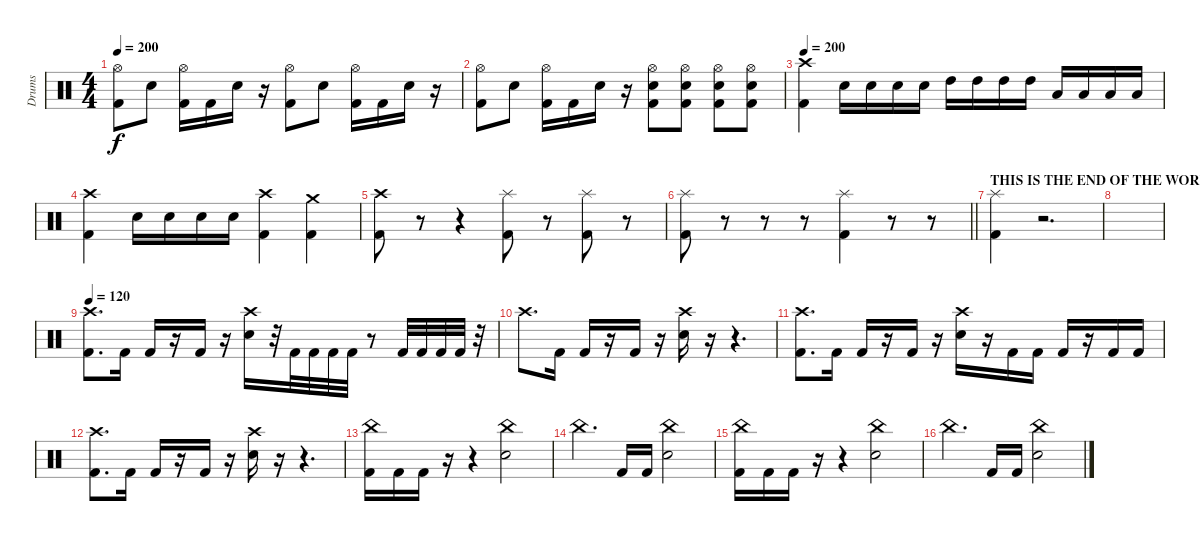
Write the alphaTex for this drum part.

\track ("Drums" "Drums") {instrument percussion}
\staff {score}
\articulation defaults
\ts (4 4)
\tempo 200
\clef neutral
\ks c
("Hi-Hat (open)" "Kick (hit) 2").8{dy f} "Snare (hit) 2".8 ("Hi-Hat (open)" "Kick (hit) 2").16 "Kick (hit) 2".16 "Snare (hit) 2".16 r.16 ("Hi-Hat (open)" "Kick (hit) 2").8 "Snare (hit) 2".8 ("Hi-Hat (open)" "Kick (hit) 2").16 "Kick (hit) 2".16 "Snare (hit) 2".16 r.16 |
("Hi-Hat (open)" "Kick (hit) 2").8 "Snare (hit) 2".8 ("Hi-Hat (open)" "Kick (hit) 2").16 "Kick (hit) 2".16 "Snare (hit) 2".16 r.16 ("Hi-Hat (open)" "Snare (hit) 2" "Kick (hit) 2").8 ("Hi-Hat (open)" "Snare (hit) 2" "Kick (hit) 2").8 ("Hi-Hat (open)" "Snare (hit) 2" "Kick (hit) 2").8 ("Hi-Hat (open)" "Snare (hit) 2" "Kick (hit) 2").8 |
\tempo 200
("Crash high (hit)" "Kick (hit) 2").4 "Snare (hit) 2".16 "Snare (hit) 2".16 "Snare (hit) 2".16 "Snare (hit) 2".16 "High Tom (hit)".16 "High Tom (hit)".16 "High Tom (hit)".16 "High Tom (hit)".16 "Low Tom (hit)".16 "Low Tom (hit)".16 "Low Tom (hit)".16 "Low Tom (hit)".16 |
("Crash high (hit)" "Kick (hit) 2").4 "Snare (hit) 2".16 "Snare (hit) 2".16 "Snare (hit) 2".16 "Snare (hit) 2".16 ("Crash high (hit)" "Kick (hit) 2").4 ("Crash medium (hit)" "Kick (hit) 2").4 |
("Crash high (hit)" "Kick (hit) 2").8 r.8 r.4 ("Splash (hit)" "Kick (hit) 2").8 r.8 ("Splash (hit)" "Kick (hit) 2").8 r.8 |
\barLineRight lightlight
("Splash (hit)" "Kick (hit) 2").8 r.8 r.8 r.8 ("Splash (hit)" "Kick (hit) 2").4 r.8 r.8 |
\section ("" "THIS IS THE END OF THE WORLD!!")
("Splash (hit)" "Kick (hit) 2").4 r.2{d} |
|
\tempo 120
("Crash high (hit)" "Kick (hit) 2").8{d} "Kick (hit) 2".16 "Kick (hit) 2".16 r.16 "Kick (hit) 2".16 r.16 ("Crash high (hit)" "Snare (hit) 2").16 r.32 "Kick (hit) 2".32 "Kick (hit) 2".32 "Kick (hit) 2".32 "Kick (hit) 2".32 r.8 "Kick (hit) 2".32 "Kick (hit) 2".32 "Kick (hit) 2".32 "Kick (hit) 2".32 r.32 |
"Crash high (hit)".8{d} "Kick (hit) 2".16 "Kick (hit) 2".16 r.16 "Kick (hit) 2".16 r.16 ("Crash high (hit)" "Snare (hit) 2").16 r.16 r.4{d} |
("Crash high (hit)" "Kick (hit) 2").8{d} "Kick (hit) 2".16 "Kick (hit) 2".16 r.16 "Kick (hit) 2".16 r.16 ("Crash high (hit)" "Snare (hit) 2").16 r.16 "Kick (hit) 2".16 "Kick (hit) 2".16 "Kick (hit) 2".16 r.16 "Kick (hit) 2".16 "Kick (hit) 2".16 |
("Crash high (hit)" "Kick (hit) 2").8{d} "Kick (hit) 2".16 "Kick (hit) 2".16 r.16 "Kick (hit) 2".16 r.16 ("Crash high (hit)" "Snare (hit) 2").16 r.16 r.4{d} |
("China (hit)" "Kick (hit) 2").16 "Kick (hit) 2".16 "Kick (hit) 2".16 r.16 r.4 ("China (hit)" "Snare (hit) 2").2 |
"China (hit)".4{d} "Kick (hit) 2".16 "Kick (hit) 2".16 ("China (hit)" "Snare (hit) 2").2 |
("China (hit)" "Kick (hit) 2").16 "Kick (hit) 2".16 "Kick (hit) 2".16 r.16 r.4 ("China (hit)" "Snare (hit) 2").2 |
"China (hit)".4{d} "Kick (hit) 2".16 "Kick (hit) 2".16 ("China (hit)" "Snare (hit) 2").2
